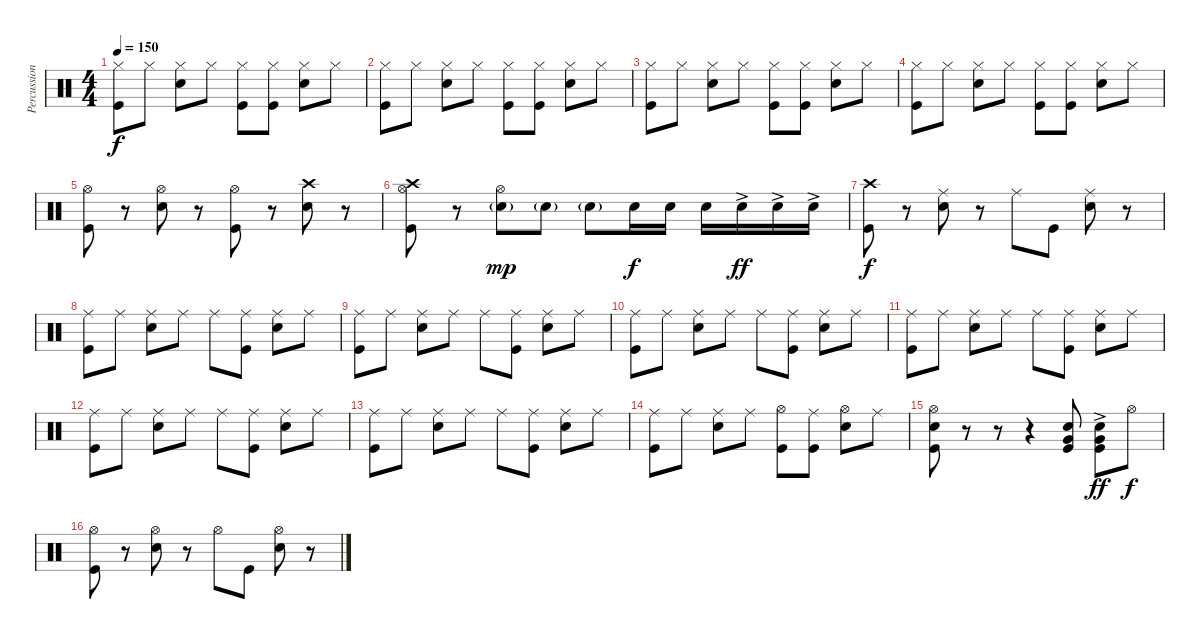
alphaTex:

\track ("Percussion" "Percussion") {instrument percussion}
\staff {score}
\articulation defaults
\ts (4 4)
\tempo 150
\clef neutral
\ks c
("Hi-Hat (closed)" "Kick (hit)").8{dy f} "Hi-Hat (closed)".8 ("Hi-Hat (closed)" "Snare (hit) 2").8 "Hi-Hat (closed)".8 ("Hi-Hat (closed)" "Kick (hit)").8 ("Hi-Hat (closed)" "Kick (hit)").8 ("Hi-Hat (closed)" "Snare (hit) 2").8 "Hi-Hat (closed)".8 |
("Hi-Hat (closed)" "Kick (hit)").8 "Hi-Hat (closed)".8 ("Hi-Hat (closed)" "Snare (hit) 2").8 "Hi-Hat (closed)".8 ("Hi-Hat (closed)" "Kick (hit)").8 ("Hi-Hat (closed)" "Kick (hit)").8 ("Hi-Hat (closed)" "Snare (hit) 2").8 "Hi-Hat (closed)".8 |
("Hi-Hat (closed)" "Kick (hit)").8 "Hi-Hat (closed)".8 ("Hi-Hat (closed)" "Snare (hit) 2").8 "Hi-Hat (closed)".8 ("Hi-Hat (closed)" "Kick (hit)").8 ("Hi-Hat (closed)" "Kick (hit)").8 ("Hi-Hat (closed)" "Snare (hit) 2").8 "Hi-Hat (closed)".8 |
("Hi-Hat (closed)" "Kick (hit)").8 "Hi-Hat (closed)".8 ("Hi-Hat (closed)" "Snare (hit) 2").8 "Hi-Hat (closed)".8 ("Hi-Hat (closed)" "Kick (hit)").8 ("Hi-Hat (closed)" "Kick (hit)").8 ("Hi-Hat (closed)" "Snare (hit) 2").8 "Hi-Hat (closed)".8 |
("Hi-Hat (open)" "Kick (hit)").8 r.8 ("Hi-Hat (open)" "Snare (hit) 2").8 r.8 ("Hi-Hat (open)" "Kick (hit)").8 r.8 ("Crash high (hit)" "Snare (hit) 2").8 r.8 |
("Crash high (hit)" "Hi-Hat (open)" "Kick (hit)").8 r.8 ("Hi-Hat (open)" "Snare (hit) 2"{g}).8{dy mp} "Snare (hit) 2"{g}.8 "Snare (hit) 2"{g}.8 "Snare (hit) 2".16{dy f} "Snare (hit) 2".16 "Snare (hit) 2".16 "Snare (hit) 2"{ac}.16{dy ff} "Snare (hit) 2"{ac}.16 "Snare (hit) 2"{ac}.16 |
("Crash high (hit)" "Kick (hit)").8{dy f} r.8 ("Ride (middle)" "Snare (hit) 2").8 r.8 "Ride (middle)".8 "Kick (hit)".8 ("Ride (middle)" "Snare (hit) 2").8 r.8 |
("Ride (middle)" "Kick (hit)").8 "Ride (middle)".8 ("Ride (middle)" "Snare (hit) 2").8 "Ride (middle)".8 "Ride (middle)".8 ("Ride (middle)" "Kick (hit)").8 ("Ride (middle)" "Snare (hit) 2").8 "Ride (middle)".8 |
("Ride (middle)" "Kick (hit)").8 "Ride (middle)".8 ("Ride (middle)" "Snare (hit) 2").8 "Ride (middle)".8 "Ride (middle)".8 ("Ride (middle)" "Kick (hit)").8 ("Ride (middle)" "Snare (hit) 2").8 "Ride (middle)".8 |
("Ride (middle)" "Kick (hit)").8 "Ride (middle)".8 ("Ride (middle)" "Snare (hit) 2").8 "Ride (middle)".8 "Ride (middle)".8 ("Ride (middle)" "Kick (hit)").8 ("Ride (middle)" "Snare (hit) 2").8 "Ride (middle)".8 |
("Ride (middle)" "Kick (hit)").8 "Ride (middle)".8 ("Ride (middle)" "Snare (hit) 2").8 "Ride (middle)".8 "Ride (middle)".8 ("Ride (middle)" "Kick (hit)").8 ("Ride (middle)" "Snare (hit) 2").8 "Ride (middle)".8 |
("Ride (middle)" "Kick (hit)").8 "Ride (middle)".8 ("Ride (middle)" "Snare (hit) 2").8 "Ride (middle)".8 "Ride (middle)".8 ("Ride (middle)" "Kick (hit)").8 ("Ride (middle)" "Snare (hit) 2").8 "Ride (middle)".8 |
("Ride (middle)" "Kick (hit)").8 "Ride (middle)".8 ("Ride (middle)" "Snare (hit) 2").8 "Ride (middle)".8 "Ride (middle)".8 ("Ride (middle)" "Kick (hit)").8 ("Ride (middle)" "Snare (hit) 2").8 "Ride (middle)".8 |
("Ride (middle)" "Kick (hit)").8 "Ride (middle)".8 ("Ride (middle)" "Snare (hit) 2").8 "Ride (middle)".8 ("Hi-Hat (open)" "Kick (hit)").8 ("Ride (middle)" "Kick (hit)").8 ("Hi-Hat (open)" "Snare (hit) 2").8 "Ride (middle)".8 |
("Hi-Hat (open)" "Snare (hit) 2" "Kick (hit)").8 r.8 r.8 r.4 ("Very Low Tom (hit)" "Snare (hit) 2" "Kick (hit)").8 ("Very Low Tom (hit)"{ac} "Snare (hit) 2" "Kick (hit)").8{dy ff} "Hi-Hat (open)".8{dy f} |
("Hi-Hat (open)" "Kick (hit)").8 r.8 ("Hi-Hat (open)" "Snare (hit) 2").8 r.8 "Hi-Hat (open)".8 "Kick (hit)".8 ("Hi-Hat (open)" "Snare (hit) 2").8 r.8
